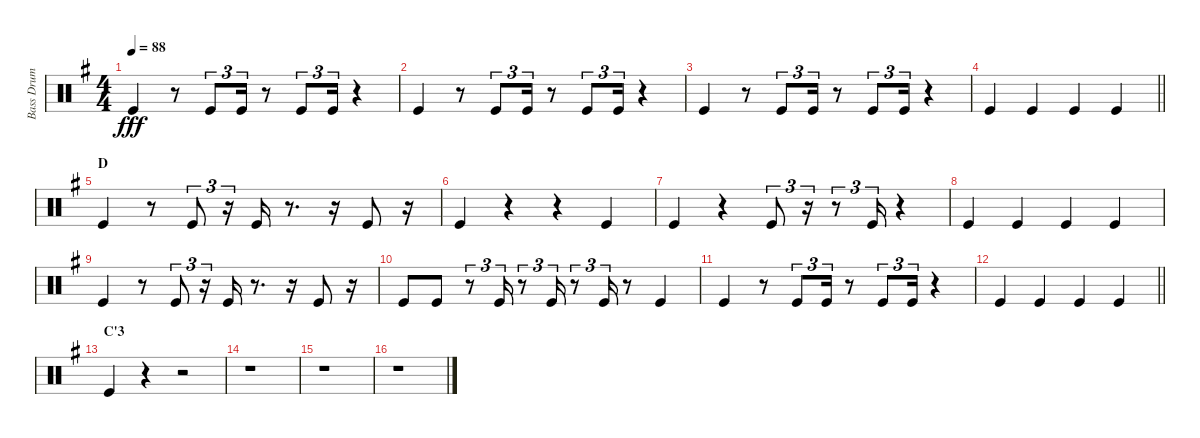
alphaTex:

\track ("Bass Drum" "Bass Drum") {instrument percussion}
\staff {score}
\articulation defaults
\ts (4 4)
\tempo 88
\clef neutral
\ks g "Kick (hit)".4{dy fff}
r.8 "Kick (hit)".8{tu (3 2)} "Kick (hit)".16{tu (3 2)} r.8 "Kick (hit)".8{tu (3 2)} "Kick (hit)".16{tu (3 2)} r.4 |
"Kick (hit)".4 r.8 "Kick (hit)".8{tu (3 2)} "Kick (hit)".16{tu (3 2)} r.8 "Kick (hit)".8{tu (3 2)} "Kick (hit)".16{tu (3 2)} r.4 |
"Kick (hit)".4 r.8 "Kick (hit)".8{tu (3 2)} "Kick (hit)".16{tu (3 2)} r.8 "Kick (hit)".8{tu (3 2)} "Kick (hit)".16{tu (3 2)} r.4 |
\barLineRight lightlight "Kick (hit)".4 "Kick (hit)".4 "Kick (hit)".4 "Kick (hit)".4
|
\section ("" "D")
"Kick (hit)".4 r.8 "Kick (hit)".8{tu (3 2)} r.16{tu (3 2)} "Kick (hit)".16 r.8{d} r.16 "Kick (hit)".8 r.16 |
"Kick (hit)".4 r.4 r.4 "Kick (hit)".4 |
"Kick (hit)".4 r.4 "Kick (hit)".8{tu (3 2)} r.16{tu (3 2)} r.8{tu (3 2)} "Kick (hit)".16{tu (3 2)} r.4 |
"Kick (hit)".4 "Kick (hit)".4 "Kick (hit)".4 "Kick (hit)".4 |
"Kick (hit)".4 r.8 "Kick (hit)".8{tu (3 2)} r.16{tu (3 2)} "Kick (hit)".16 r.8{d} r.16 "Kick (hit)".8 r.16 |
"Kick (hit)".8 "Kick (hit)".8 r.8{tu (3 2)} "Kick (hit)".16{tu (3 2)} r.8{tu (3 2)} "Kick (hit)".16{tu (3 2)} r.8{tu (3 2)} "Kick (hit)".16{tu (3 2)} r.8 "Kick (hit)".4 |
"Kick (hit)".4 r.8 "Kick (hit)".8{tu (3 2)} "Kick (hit)".16{tu (3 2)} r.8 "Kick (hit)".8{tu (3 2)} "Kick (hit)".16{tu (3 2)} r.4 |
\barLineRight lightlight "Kick (hit)".4 "Kick (hit)".4 "Kick (hit)".4 "Kick (hit)".4
|
\section ("" "C'3")
"Kick (hit)".4 r.4 r.2 |
r.1 |
r.1 |
r.1
